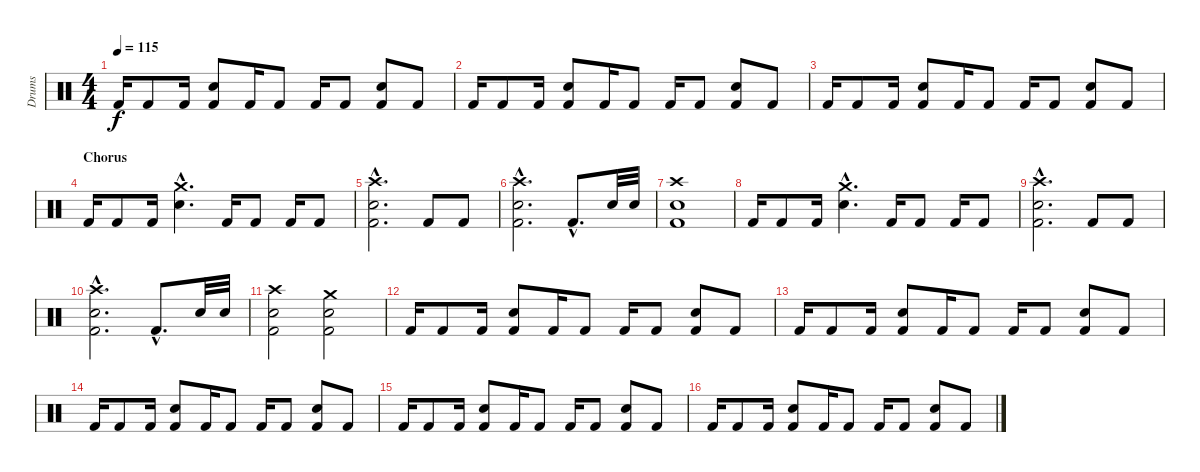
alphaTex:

\track ("Drums" "Drums") {instrument percussion}
\staff {score}
\articulation defaults
\ts (4 4)
\tempo 115
\clef neutral
\ks c "Kick (hit) 2".16{dy f} "Kick (hit) 2".8 "Kick (hit) 2".16
("Snare (hit) 2" "Kick (hit) 2").8 "Kick (hit) 2".16 "Kick (hit) 2".8 "Kick (hit) 2".16 "Kick (hit) 2".8 ("Snare (hit) 2" "Kick (hit) 2").8 "Kick (hit) 2".8 |
"Kick (hit) 2".16 "Kick (hit) 2".8 "Kick (hit) 2".16 ("Snare (hit) 2" "Kick (hit) 2").8 "Kick (hit) 2".16 "Kick (hit) 2".8 "Kick (hit) 2".16 "Kick (hit) 2".8 ("Snare (hit) 2" "Kick (hit) 2").8 "Kick (hit) 2".8 |
"Kick (hit) 2".16 "Kick (hit) 2".8 "Kick (hit) 2".16 ("Snare (hit) 2" "Kick (hit) 2").8 "Kick (hit) 2".16 "Kick (hit) 2".8 "Kick (hit) 2".16 "Kick (hit) 2".8 ("Snare (hit) 2" "Kick (hit) 2").8 "Kick (hit) 2".8 |
\section ("" "Chorus")
"Kick (hit) 2".16 "Kick (hit) 2".8 "Kick (hit) 2".16 ("Crash medium (hit)"{hac} "Snare (hit) 2"{hac}).4{d} "Kick (hit) 2".16 "Kick (hit) 2".8 "Kick (hit) 2".16 "Kick (hit) 2".8 |
("Crash high (hit)"{hac} "Snare (hit) 2"{hac} "Kick (hit) 2"{hac}).2{d} "Kick (hit) 2".8 "Kick (hit) 2".8 |
("Crash high (hit)"{hac} "Snare (hit) 2"{hac} "Kick (hit) 2"{hac}).2{d} "Kick (hit) 2"{hac}.8{d} "Snare (hit) 2".32 "Snare (hit) 2".32 |
("Crash high (hit)" "Kick (hit) 2" "Snare (hit) 2").1 |
"Kick (hit) 2".16 "Kick (hit) 2".8 "Kick (hit) 2".16 ("Crash medium (hit)"{hac} "Snare (hit) 2"{hac}).4{d} "Kick (hit) 2".16 "Kick (hit) 2".8 "Kick (hit) 2".16 "Kick (hit) 2".8 |
("Crash high (hit)"{hac} "Snare (hit) 2"{hac} "Kick (hit) 2"{hac}).2{d} "Kick (hit) 2".8 "Kick (hit) 2".8 |
("Crash high (hit)"{hac} "Snare (hit) 2"{hac} "Kick (hit) 2"{hac}).2{d} "Kick (hit) 2"{hac}.8{d} "Snare (hit) 2".32 "Snare (hit) 2".32 |
("Crash high (hit)" "Kick (hit) 2" "Snare (hit) 2").2 ("Crash medium (hit)" "Snare (hit) 2" "Kick (hit) 2").2 |
"Kick (hit) 2".16 "Kick (hit) 2".8 "Kick (hit) 2".16 ("Snare (hit) 2" "Kick (hit) 2").8 "Kick (hit) 2".16 "Kick (hit) 2".8 "Kick (hit) 2".16 "Kick (hit) 2".8 ("Snare (hit) 2" "Kick (hit) 2").8 "Kick (hit) 2".8 |
"Kick (hit) 2".16 "Kick (hit) 2".8 "Kick (hit) 2".16 ("Snare (hit) 2" "Kick (hit) 2").8 "Kick (hit) 2".16 "Kick (hit) 2".8 "Kick (hit) 2".16 "Kick (hit) 2".8 ("Snare (hit) 2" "Kick (hit) 2").8 "Kick (hit) 2".8 |
"Kick (hit) 2".16 "Kick (hit) 2".8 "Kick (hit) 2".16 ("Snare (hit) 2" "Kick (hit) 2").8 "Kick (hit) 2".16 "Kick (hit) 2".8 "Kick (hit) 2".16 "Kick (hit) 2".8 ("Snare (hit) 2" "Kick (hit) 2").8 "Kick (hit) 2".8 |
"Kick (hit) 2".16 "Kick (hit) 2".8 "Kick (hit) 2".16 ("Snare (hit) 2" "Kick (hit) 2").8 "Kick (hit) 2".16 "Kick (hit) 2".8 "Kick (hit) 2".16 "Kick (hit) 2".8 ("Snare (hit) 2" "Kick (hit) 2").8 "Kick (hit) 2".8 |
"Kick (hit) 2".16 "Kick (hit) 2".8 "Kick (hit) 2".16 ("Snare (hit) 2" "Kick (hit) 2").8 "Kick (hit) 2".16 "Kick (hit) 2".8 "Kick (hit) 2".16 "Kick (hit) 2".8 ("Snare (hit) 2" "Kick (hit) 2").8 "Kick (hit) 2".8
